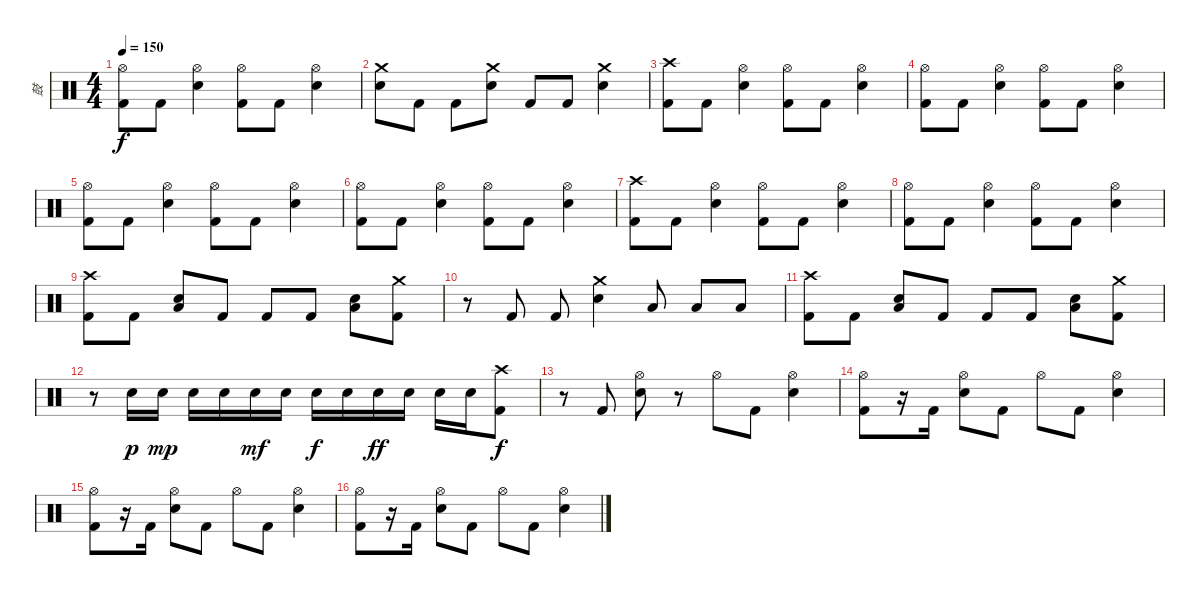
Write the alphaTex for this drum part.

\track ("鼓" "鼓") {instrument percussion}
\staff {score}
\articulation defaults
\ts (4 4)
\tempo 150
\clef neutral
\ks c
("Hi-Hat (open)" "Kick (hit) 2").8{dy f} "Kick (hit) 2".8 ("Hi-Hat (open)" "Snare (hit) 2").4 ("Hi-Hat (open)" "Kick (hit) 2").8 "Kick (hit) 2".8 ("Hi-Hat (open)" "Snare (hit) 2").4 |
("Crash medium (hit)" "Snare (hit) 2").8 "Kick (hit) 2".8 "Kick (hit) 2".8 ("Crash medium (hit)" "Snare (hit) 2").8 "Kick (hit) 2".8 "Kick (hit) 2".8 ("Crash medium (hit)" "Snare (hit) 2").4 |
("Crash high (hit)" "Kick (hit) 2").8 "Kick (hit) 2".8 ("Hi-Hat (open)" "Snare (hit) 2").4 ("Hi-Hat (open)" "Kick (hit) 2").8 "Kick (hit) 2".8 ("Hi-Hat (open)" "Snare (hit) 2").4 |
("Hi-Hat (open)" "Kick (hit) 2").8 "Kick (hit) 2".8 ("Hi-Hat (open)" "Snare (hit) 2").4 ("Hi-Hat (open)" "Kick (hit) 2").8 "Kick (hit) 2".8 ("Hi-Hat (open)" "Snare (hit) 2").4 |
("Hi-Hat (open)" "Kick (hit) 2").8 "Kick (hit) 2".8 ("Hi-Hat (open)" "Snare (hit) 2").4 ("Hi-Hat (open)" "Kick (hit) 2").8 "Kick (hit) 2".8 ("Hi-Hat (open)" "Snare (hit) 2").4 |
("Hi-Hat (open)" "Kick (hit) 2").8 "Kick (hit) 2".8 ("Hi-Hat (open)" "Snare (hit) 2").4 ("Hi-Hat (open)" "Kick (hit) 2").8 "Kick (hit) 2".8 ("Hi-Hat (open)" "Snare (hit) 2").4 |
("Crash high (hit)" "Kick (hit) 2").8 "Kick (hit) 2".8 ("Hi-Hat (open)" "Snare (hit) 2").4 ("Hi-Hat (open)" "Kick (hit) 2").8 "Kick (hit) 2".8 ("Hi-Hat (open)" "Snare (hit) 2").4 |
("Hi-Hat (open)" "Kick (hit) 2").8 "Kick (hit) 2".8 ("Hi-Hat (open)" "Snare (hit) 2").4 ("Hi-Hat (open)" "Kick (hit) 2").8 "Kick (hit) 2".8 ("Hi-Hat (open)" "Snare (hit) 2").4 |
("Crash high (hit)" "Kick (hit) 2").8 "Kick (hit) 2".8 ("Snare (hit) 2" "Low Floor Tom (hit)").8 "Kick (hit) 2".8 "Kick (hit) 2".8 "Kick (hit) 2".8 ("Snare (hit) 2" "Low Floor Tom (hit)").8 ("Crash medium (hit)" "Kick (hit) 2").8 |
r.8 "Kick (hit) 2".8 "Kick (hit) 2".8 ("Crash medium (hit)" "Snare (hit) 2").4 "Low Tom (hit)".8 "Low Floor Tom (hit)".8 "Low Floor Tom (hit)".8 |
("Crash high (hit)" "Kick (hit) 2").8 "Kick (hit) 2".8 ("Snare (hit) 2" "Low Floor Tom (hit)").8 "Kick (hit) 2".8 "Kick (hit) 2".8 "Kick (hit) 2".8 ("Snare (hit) 2" "Low Floor Tom (hit)").8 ("Crash medium (hit)" "Kick (hit) 2").8 |
r.8 "Snare (hit) 2".16{dy p} "Snare (hit) 2".16{dy mp} "Snare (hit) 2".16 "Snare (hit) 2".16 "Snare (hit) 2".16{dy mf} "Snare (hit) 2".16 "Snare (hit) 2".16{dy f} "Snare (hit) 2".16 "Snare (hit) 2".16{dy ff} "Snare (hit) 2".16 "Snare (hit) 2".16 "Snare (hit) 2".16 ("Crash high (hit)" "Kick (hit) 2").8{dy f} |
r.8 "Kick (hit) 2".8 ("Hi-Hat (open)" "Snare (hit) 2").8 r.8 "Hi-Hat (open)".8 "Kick (hit) 2".8 ("Hi-Hat (open)" "Snare (hit) 2").4 |
("Hi-Hat (open)" "Kick (hit) 2").8 r.16 "Kick (hit) 2".16 ("Hi-Hat (open)" "Snare (hit) 2").8 "Kick (hit) 2".8 "Hi-Hat (open)".8 "Kick (hit) 2".8 ("Hi-Hat (open)" "Snare (hit) 2").4 |
("Hi-Hat (open)" "Kick (hit) 2").8 r.16 "Kick (hit) 2".16 ("Hi-Hat (open)" "Snare (hit) 2").8 "Kick (hit) 2".8 "Hi-Hat (open)".8 "Kick (hit) 2".8 ("Hi-Hat (open)" "Snare (hit) 2").4 |
("Hi-Hat (open)" "Kick (hit) 2").8 r.16 "Kick (hit) 2".16 ("Hi-Hat (open)" "Snare (hit) 2").8 "Kick (hit) 2".8 "Hi-Hat (open)".8 "Kick (hit) 2".8 ("Hi-Hat (open)" "Snare (hit) 2").4
